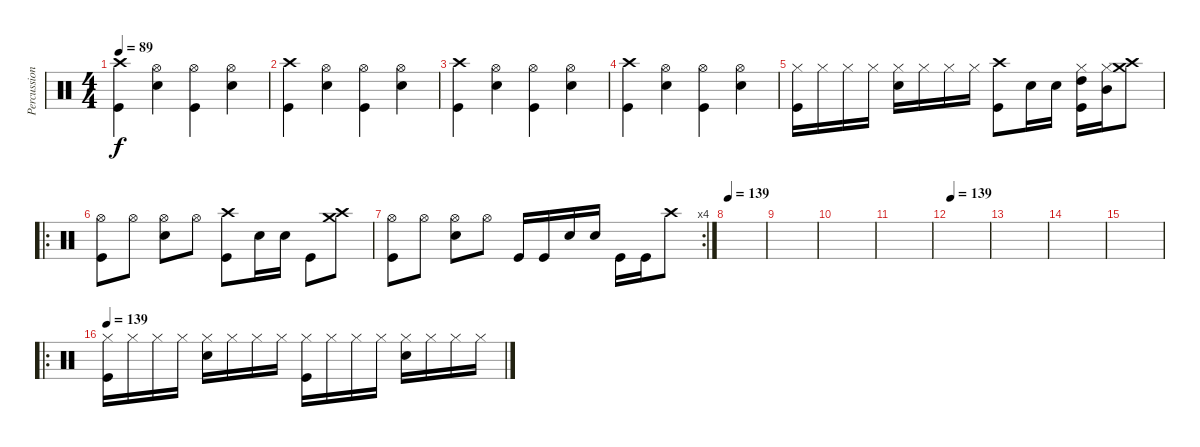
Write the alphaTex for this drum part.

\track ("Percussion" "Percussion") {instrument percussion}
\staff {score}
\articulation defaults
\ts (4 4)
\tempo 89
\clef neutral
\ks c
("Crash high (hit)" "Kick (hit)").4{dy f volume 15} ("Hi-Hat (open)" "Snare (hit) 2").4 ("Hi-Hat (open)" "Kick (hit)").4 ("Hi-Hat (open)" "Snare (hit) 2").4 |
("Crash high (hit)" "Kick (hit)").4{volume 15} ("Hi-Hat (open)" "Snare (hit) 2").4 ("Hi-Hat (open)" "Kick (hit)").4 ("Hi-Hat (open)" "Snare (hit) 2").4 |
("Crash high (hit)" "Kick (hit)").4{volume 15} ("Hi-Hat (open)" "Snare (hit) 2").4 ("Hi-Hat (open)" "Kick (hit)").4 ("Hi-Hat (open)" "Snare (hit) 2").4 |
("Crash high (hit)" "Kick (hit)").4{volume 15} ("Hi-Hat (open)" "Snare (hit) 2").4 ("Hi-Hat (open)" "Kick (hit)").4 ("Hi-Hat (open)" "Snare (hit) 2").4 |
("Hi-Hat (closed)" "Kick (hit)").16 "Hi-Hat (closed)".16 "Hi-Hat (closed)".16 "Hi-Hat (closed)".16 ("Hi-Hat (closed)" "Snare (hit) 2").16 "Hi-Hat (closed)".16 "Hi-Hat (closed)".16 "Hi-Hat (closed)".16 ("Crash high (hit)" "Kick (hit)").8 "Snare (hit) 2".16 "Snare (hit) 2".16 ("Hi-Hat (closed)" "High Tom (hit)" "Kick (hit)").16 ("Hi-Hat (closed)" "Mid Tom (hit)").16 ("Crash high (hit)" "Crash medium (hit)").8 |
\ro
("Hi-Hat (open)" "Kick (hit)").8 "Hi-Hat (open)".8 ("Hi-Hat (open)" "Snare (hit) 2").8 "Hi-Hat (open)".8 ("Crash high (hit)" "Kick (hit)").8 "Snare (hit) 2".16 "Snare (hit) 2".16 "Kick (hit)".8 ("Crash high (hit)" "Crash medium (hit)").8 |
\rc 4
("Hi-Hat (open)" "Kick (hit)").8 "Hi-Hat (open)".8 ("Hi-Hat (open)" "Snare (hit) 2").8 "Hi-Hat (open)".8 "Kick (hit)".16 "Kick (hit)".16 "Snare (hit) 2".16 "Snare (hit) 2".16 "Kick (hit)".16 "Kick (hit)".16 "Crash high (hit)".8 |
\tempo 139
|
|
|
|
\tempo 139
|
|
|
|
\ro
\tempo 139
("Hi-Hat (closed)" "Kick (hit)").16{volume 10} "Hi-Hat (closed)".16 "Hi-Hat (closed)".16 "Hi-Hat (closed)".16 ("Hi-Hat (closed)" "Snare (hit) 2").16 "Hi-Hat (closed)".16 "Hi-Hat (closed)".16 "Hi-Hat (closed)".16 ("Hi-Hat (closed)" "Kick (hit)").16 "Hi-Hat (closed)".16 "Hi-Hat (closed)".16 "Hi-Hat (closed)".16 ("Hi-Hat (closed)" "Snare (hit) 2").16 "Hi-Hat (closed)".16 "Hi-Hat (closed)".16 "Hi-Hat (closed)".16
